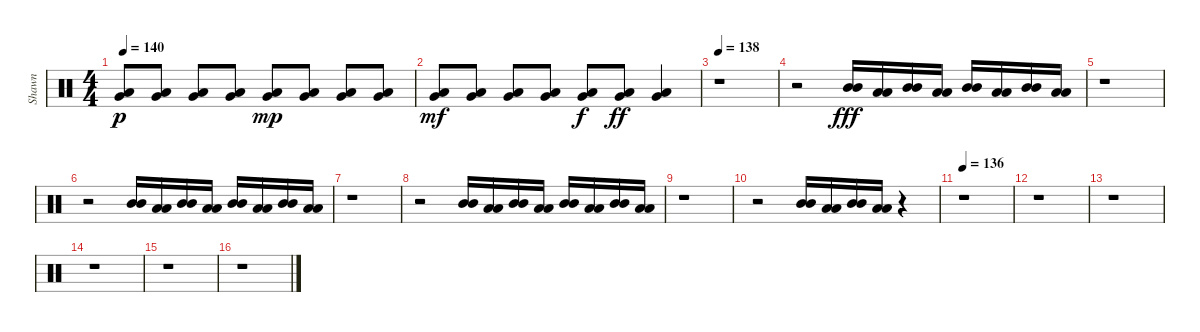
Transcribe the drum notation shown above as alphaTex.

\track ("Shawn" "Shawn") {instrument percussion}
\staff {score}
\articulation defaults
\ts (4 4)
\tempo 140
\clef neutral
\ks c
("Low Tom (hit)" "Very Low Tom (hit)").8{dy p} ("Low Tom (hit)" "Very Low Tom (hit)").8 ("Low Tom (hit)" "Very Low Tom (hit)").8 ("Low Tom (hit)" "Very Low Tom (hit)").8 ("Low Tom (hit)" "Very Low Tom (hit)").8{dy mp} ("Low Tom (hit)" "Very Low Tom (hit)").8 ("Low Tom (hit)" "Very Low Tom (hit)").8 ("Low Tom (hit)" "Very Low Tom (hit)").8 |
("Low Tom (hit)" "Very Low Tom (hit)").8{dy mf} ("Low Tom (hit)" "Very Low Tom (hit)").8 ("Low Tom (hit)" "Very Low Tom (hit)").8 ("Low Tom (hit)" "Very Low Tom (hit)").8 ("Low Tom (hit)" "Very Low Tom (hit)").8{dy f} ("Low Tom (hit)" "Very Low Tom (hit)").8{dy ff} ("Low Tom (hit)" "Very Low Tom (hit)").4 |
\tempo 138
r.1 |
r.2 ("Mid Tom (hit)" "Mid Tom (hit)").16{dy fff} ("Low Tom (hit)" "Low Tom (hit)").16 ("Mid Tom (hit)" "Mid Tom (hit)").16 ("Low Tom (hit)" "Low Tom (hit)").16 ("Mid Tom (hit)" "Mid Tom (hit)").16 ("Low Tom (hit)" "Low Tom (hit)").16 ("Mid Tom (hit)" "Mid Tom (hit)").16 ("Low Tom (hit)" "Low Tom (hit)").16 |
r.1 |
r.2 ("Mid Tom (hit)" "Mid Tom (hit)").16 ("Low Tom (hit)" "Low Tom (hit)").16 ("Mid Tom (hit)" "Mid Tom (hit)").16 ("Low Tom (hit)" "Low Tom (hit)").16 ("Mid Tom (hit)" "Mid Tom (hit)").16 ("Low Tom (hit)" "Low Tom (hit)").16 ("Mid Tom (hit)" "Mid Tom (hit)").16 ("Low Tom (hit)" "Low Tom (hit)").16 |
r.1 |
r.2 ("Mid Tom (hit)" "Mid Tom (hit)").16 ("Low Tom (hit)" "Low Tom (hit)").16 ("Mid Tom (hit)" "Mid Tom (hit)").16 ("Low Tom (hit)" "Low Tom (hit)").16 ("Mid Tom (hit)" "Mid Tom (hit)").16 ("Low Tom (hit)" "Low Tom (hit)").16 ("Mid Tom (hit)" "Mid Tom (hit)").16 ("Low Tom (hit)" "Low Tom (hit)").16 |
r.1 |
r.2 ("Mid Tom (hit)" "Mid Tom (hit)").16 ("Low Tom (hit)" "Low Tom (hit)").16 ("Mid Tom (hit)" "Mid Tom (hit)").16 ("Low Tom (hit)" "Low Tom (hit)").16 r.4 |
\tempo 136
r.1 |
r.1 |
r.1 |
r.1 |
r.1 |
r.1
